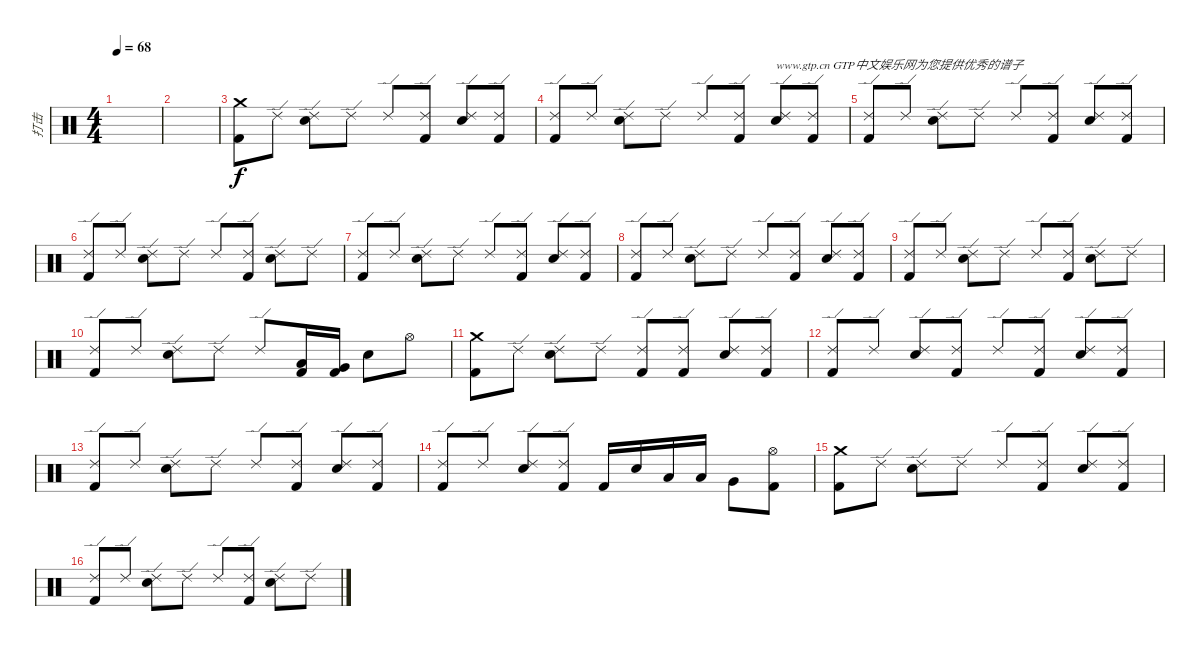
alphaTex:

\track ("打击" "打击") {instrument percussion}
\staff {score}
\articulation defaults
\ts (4 4)
\tempo 68
\clef neutral
\ks c
|
|
("Kick (hit) 2" "Crash medium (hit)").8 "Ride (edge) 2".8 ("Electric Snare (hit)" "Ride (edge) 2").8 "Ride (edge) 2".8 "Ride (edge) 2".8 ("Kick (hit) 2" "Ride (edge) 2").8 ("Electric Snare (hit)" "Ride (edge) 2").8 ("Kick (hit) 2" "Ride (edge) 2").8 |
("Kick (hit) 2" "Ride (edge) 2").8 "Ride (edge) 2".8 ("Electric Snare (hit)" "Ride (edge) 2").8 "Ride (edge) 2".8 "Ride (edge) 2".8 ("Kick (hit) 2" "Ride (edge) 2").8 ("Electric Snare (hit)" "Ride (edge) 2").8{txt "www.gtp.cn GTP中文娱乐网为您提供优秀的谱子"} ("Kick (hit) 2" "Ride (edge) 2").8 |
("Kick (hit) 2" "Ride (edge) 2").8 "Ride (edge) 2".8 ("Electric Snare (hit)" "Ride (edge) 2").8 "Ride (edge) 2".8 "Ride (edge) 2".8 ("Kick (hit) 2" "Ride (edge) 2").8 ("Electric Snare (hit)" "Ride (edge) 2").8 ("Kick (hit) 2" "Ride (edge) 2").8 |
("Kick (hit) 2" "Ride (edge) 2").8 "Ride (edge) 2".8 ("Electric Snare (hit)" "Ride (edge) 2").8 "Ride (edge) 2".8 "Ride (edge) 2".8 ("Kick (hit) 2" "Ride (edge) 2").8 ("Electric Snare (hit)" "Ride (edge) 2").8 "Ride (edge) 2".8 |
("Kick (hit) 2" "Ride (edge) 2").8 "Ride (edge) 2".8 ("Electric Snare (hit)" "Ride (edge) 2").8 "Ride (edge) 2".8 "Ride (edge) 2".8 ("Kick (hit) 2" "Ride (edge) 2").8 ("Electric Snare (hit)" "Ride (edge) 2").8 ("Kick (hit) 2" "Ride (edge) 2").8 |
("Kick (hit) 2" "Ride (edge) 2").8 "Ride (edge) 2".8 ("Electric Snare (hit)" "Ride (edge) 2").8 "Ride (edge) 2".8 "Ride (edge) 2".8 ("Kick (hit) 2" "Ride (edge) 2").8 ("Electric Snare (hit)" "Ride (edge) 2").8 ("Kick (hit) 2" "Ride (edge) 2").8 |
("Kick (hit) 2" "Ride (edge) 2").8 "Ride (edge) 2".8 ("Electric Snare (hit)" "Ride (edge) 2").8 "Ride (edge) 2".8 "Ride (edge) 2".8 ("Kick (hit) 2" "Ride (edge) 2").8 ("Electric Snare (hit)" "Ride (edge) 2").8 "Ride (edge) 2".8 |
("Kick (hit) 2" "Ride (edge) 2").8 "Ride (edge) 2".8 ("Electric Snare (hit)" "Ride (edge) 2").8 "Ride (edge) 2".8 "Ride (edge) 2".8 ("Kick (hit) 2" "Low Tom (hit)").16 ("Kick (hit) 2" "Very Low Tom (hit)").16 "Electric Snare (hit)".8 "Hi-Hat (open)".8 |
("Kick (hit) 2" "Crash medium (hit)").8 "Ride (edge) 2".8 ("Electric Snare (hit)" "Ride (edge) 2").8 "Ride (edge) 2".8 ("Kick (hit) 2" "Ride (edge) 2").8 ("Kick (hit) 2" "Ride (edge) 2").8 ("Electric Snare (hit)" "Ride (edge) 2").8 ("Kick (hit) 2" "Ride (edge) 2").8 |
("Kick (hit) 2" "Ride (edge) 2").8 "Ride (edge) 2".8 ("Electric Snare (hit)" "Ride (edge) 2").8 ("Kick (hit) 2" "Ride (edge) 2").8 "Ride (edge) 2".8 ("Kick (hit) 2" "Ride (edge) 2").8 ("Electric Snare (hit)" "Ride (edge) 2").8 ("Kick (hit) 2" "Ride (edge) 2").8 |
("Kick (hit) 2" "Ride (edge) 2").8 "Ride (edge) 2".8 ("Electric Snare (hit)" "Ride (edge) 2").8 "Ride (edge) 2".8 "Ride (edge) 2".8 ("Kick (hit) 2" "Ride (edge) 2").8 ("Electric Snare (hit)" "Ride (edge) 2").8 ("Kick (hit) 2" "Ride (edge) 2").8 |
("Kick (hit) 2" "Ride (edge) 2").8 "Ride (edge) 2".8 ("Electric Snare (hit)" "Ride (edge) 2").8 ("Kick (hit) 2" "Ride (edge) 2").8 "Kick (hit) 2".16 "Electric Snare (hit)".16 "Low Tom (hit)".16 "Low Tom (hit)".16 "Very Low Tom (hit)".8 ("Kick (hit) 2" "Hi-Hat (open)").8 |
("Kick (hit) 2" "Crash medium (hit)").8 "Ride (edge) 2".8 ("Electric Snare (hit)" "Ride (edge) 2").8 "Ride (edge) 2".8 "Ride (edge) 2".8 ("Kick (hit) 2" "Ride (edge) 2").8 ("Electric Snare (hit)" "Ride (edge) 2").8 ("Kick (hit) 2" "Ride (edge) 2").8 |
("Kick (hit) 2" "Ride (edge) 2").8 "Ride (edge) 2".8 ("Electric Snare (hit)" "Ride (edge) 2").8 "Ride (edge) 2".8 "Ride (edge) 2".8 ("Kick (hit) 2" "Ride (edge) 2").8 ("Electric Snare (hit)" "Ride (edge) 2").8 "Ride (edge) 2".8
